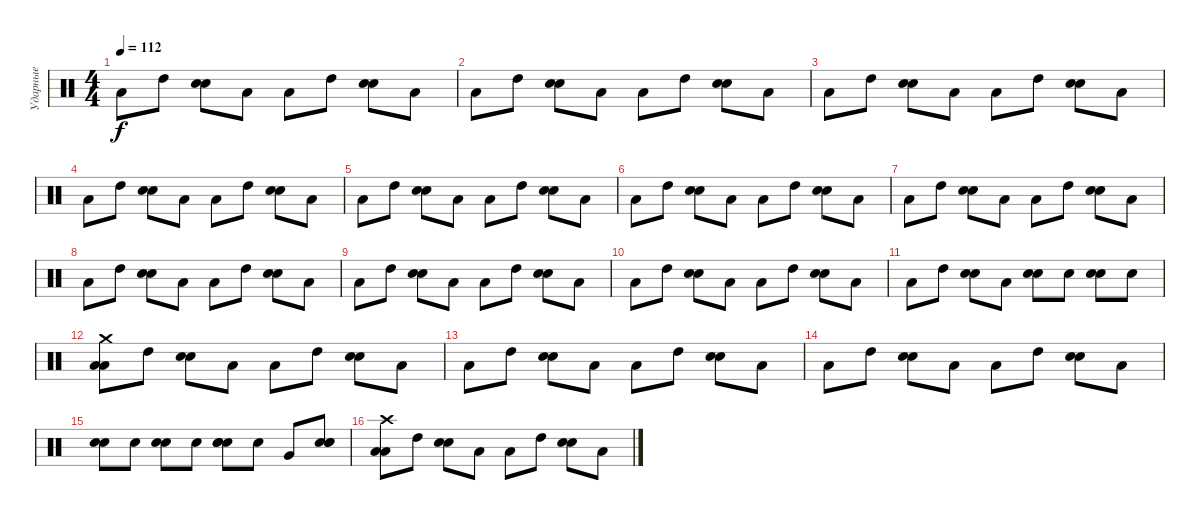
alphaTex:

\track ("Ударные" "Ударные") {instrument percussion}
\staff {score}
\articulation defaults
\ts (4 4)
\tempo 112
\clef neutral
\ks c "Low Tom (hit)".8{dy f} "High Tom (hit)".8
("Snare (hit) 2" "Snare (hit) 2").8 "Low Tom (hit)".8 "Low Tom (hit)".8 "High Tom (hit)".8 ("Snare (hit) 2" "Snare (hit) 2").8 "Low Tom (hit)".8 |
"Low Tom (hit)".8 "High Tom (hit)".8 ("Snare (hit) 2" "Snare (hit) 2").8 "Low Tom (hit)".8 "Low Tom (hit)".8 "High Tom (hit)".8 ("Snare (hit) 2" "Snare (hit) 2").8 "Low Tom (hit)".8 |
"Low Tom (hit)".8 "High Tom (hit)".8 ("Snare (hit) 2" "Snare (hit) 2").8 "Low Tom (hit)".8 "Low Tom (hit)".8 "High Tom (hit)".8 ("Snare (hit) 2" "Snare (hit) 2").8 "Low Tom (hit)".8 |
"Low Tom (hit)".8 "High Tom (hit)".8 ("Snare (hit) 2" "Snare (hit) 2").8 "Low Tom (hit)".8 "Low Tom (hit)".8 "High Tom (hit)".8 ("Snare (hit) 2" "Snare (hit) 2").8 "Low Tom (hit)".8 |
"Low Tom (hit)".8 "High Tom (hit)".8 ("Snare (hit) 2" "Snare (hit) 2").8 "Low Tom (hit)".8 "Low Tom (hit)".8 "High Tom (hit)".8 ("Snare (hit) 2" "Snare (hit) 2").8 "Low Tom (hit)".8 |
"Low Tom (hit)".8 "High Tom (hit)".8 ("Snare (hit) 2" "Snare (hit) 2").8 "Low Tom (hit)".8 "Low Tom (hit)".8 "High Tom (hit)".8 ("Snare (hit) 2" "Snare (hit) 2").8 "Low Tom (hit)".8 |
"Low Tom (hit)".8 "High Tom (hit)".8 ("Snare (hit) 2" "Snare (hit) 2").8 "Low Tom (hit)".8 "Low Tom (hit)".8 "High Tom (hit)".8 ("Snare (hit) 2" "Snare (hit) 2").8 "Low Tom (hit)".8 |
"Low Tom (hit)".8 "High Tom (hit)".8 ("Snare (hit) 2" "Snare (hit) 2").8 "Low Tom (hit)".8 "Low Tom (hit)".8 "High Tom (hit)".8 ("Snare (hit) 2" "Snare (hit) 2").8 "Low Tom (hit)".8 |
"Low Tom (hit)".8 "High Tom (hit)".8 ("Snare (hit) 2" "Snare (hit) 2").8 "Low Tom (hit)".8 "Low Tom (hit)".8 "High Tom (hit)".8 ("Snare (hit) 2" "Snare (hit) 2").8 "Low Tom (hit)".8 |
"Low Tom (hit)".8 "High Tom (hit)".8 ("Snare (hit) 2" "Snare (hit) 2").8 "Low Tom (hit)".8 "Low Tom (hit)".8 "High Tom (hit)".8 ("Snare (hit) 2" "Snare (hit) 2").8 "Low Tom (hit)".8 |
"Low Tom (hit)".8 "High Tom (hit)".8 ("Snare (hit) 2" "Snare (hit) 2").8 "Low Tom (hit)".8 ("Electric Snare (hit)" "Electric Snare (hit)").8 "Snare (hit)".8 ("Snare (hit) 2" "Snare (hit) 2").8 "Snare (hit)".8 |
("Crash medium (hit)" "Low Tom (hit)" "Low Tom (hit)").8 "High Tom (hit)".8 ("Snare (hit) 2" "Snare (hit) 2").8 "Low Tom (hit)".8 "Low Tom (hit)".8 "High Tom (hit)".8 ("Snare (hit) 2" "Snare (hit) 2").8 "Low Tom (hit)".8 |
"Low Tom (hit)".8 "High Tom (hit)".8 ("Snare (hit) 2" "Snare (hit) 2").8 "Low Tom (hit)".8 "Low Tom (hit)".8 "High Tom (hit)".8 ("Snare (hit) 2" "Snare (hit) 2").8 "Low Tom (hit)".8 |
"Low Tom (hit)".8 "High Tom (hit)".8 ("Snare (hit) 2" "Snare (hit) 2").8 "Low Tom (hit)".8 "Low Tom (hit)".8 "High Tom (hit)".8 ("Snare (hit) 2" "Snare (hit) 2").8 "Low Tom (hit)".8 |
("Electric Snare (hit)" "Electric Snare (hit)").8 "Snare (hit)".8 ("Snare (hit) 2" "Snare (hit) 2").8 "Snare (hit)".8 ("Electric Snare (hit)" "Electric Snare (hit)" "Electric Snare (hit)").8 "Snare (hit)".8 "Very Low Tom (hit)".8 ("Snare (hit)" "Snare (hit)" "Snare (hit)").8 |
("Crash high (hit)" "Low Tom (hit)" "Low Tom (hit)").8 "High Tom (hit)".8 ("Snare (hit) 2" "Snare (hit) 2").8 "Low Tom (hit)".8 "Low Tom (hit)".8 "High Tom (hit)".8 ("Snare (hit) 2" "Snare (hit) 2").8 "Low Tom (hit)".8
